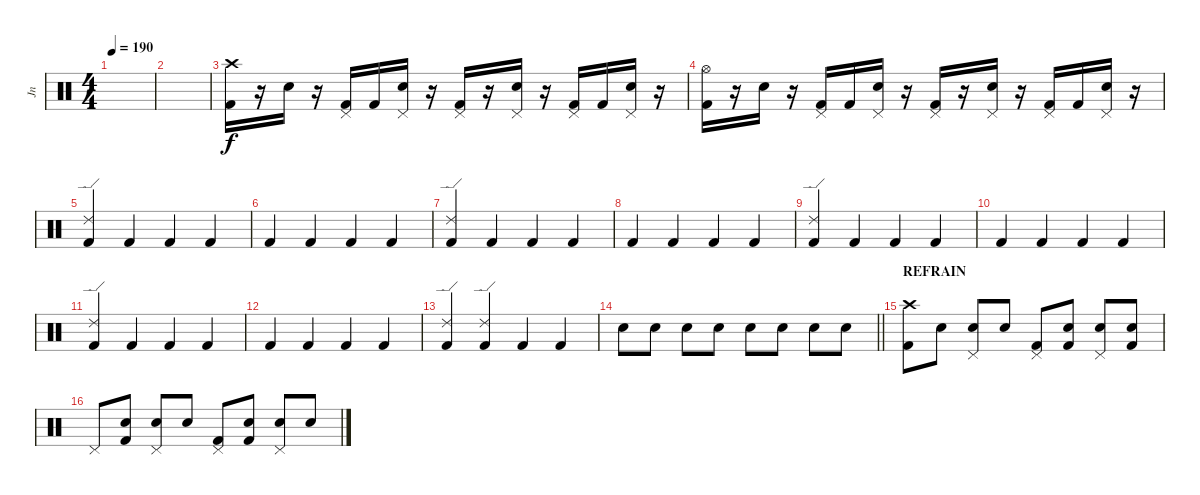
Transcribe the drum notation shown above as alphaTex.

\track ("Jn" "Jn") {instrument percussion}
\staff {score}
\articulation defaults
\ts (4 4)
\tempo 190
\clef neutral
\ks c
|
|
("Crash high (hit)" "Kick (hit) 2").16 r.16 "Electric Snare (hit)".16 r.16 ("Pedal Hi-Hat (hit)" "Kick (hit) 2").16 "Kick (hit) 2".16 ("Pedal Hi-Hat (hit)" "Electric Snare (hit)").16 r.16 ("Pedal Hi-Hat (hit)" "Kick (hit) 2").16 r.16 ("Pedal Hi-Hat (hit)" "Electric Snare (hit)").16 r.16 ("Pedal Hi-Hat (hit)" "Kick (hit) 2").16 "Kick (hit) 2".16 ("Pedal Hi-Hat (hit)" "Electric Snare (hit)").16 r.16 |
("Hi-Hat (open)" "Kick (hit) 2").16 r.16 "Electric Snare (hit)".16 r.16 ("Pedal Hi-Hat (hit)" "Kick (hit) 2").16 "Kick (hit) 2".16 ("Pedal Hi-Hat (hit)" "Electric Snare (hit)").16 r.16 ("Pedal Hi-Hat (hit)" "Kick (hit) 2").16 r.16 ("Pedal Hi-Hat (hit)" "Electric Snare (hit)").16 r.16 ("Pedal Hi-Hat (hit)" "Kick (hit) 2").16 "Kick (hit) 2".16 ("Pedal Hi-Hat (hit)" "Electric Snare (hit)").16 r.16 |
("Ride (edge) 2" "Kick (hit) 2").4 "Kick (hit) 2".4 "Kick (hit) 2".4 "Kick (hit) 2".4 |
"Kick (hit) 2".4 "Kick (hit) 2".4 "Kick (hit) 2".4 "Kick (hit) 2".4 |
("Ride (edge) 2" "Kick (hit) 2").4 "Kick (hit) 2".4 "Kick (hit) 2".4 "Kick (hit) 2".4 |
"Kick (hit) 2".4 "Kick (hit) 2".4 "Kick (hit) 2".4 "Kick (hit) 2".4 |
("Ride (edge) 2" "Kick (hit) 2").4 "Kick (hit) 2".4 "Kick (hit) 2".4 "Kick (hit) 2".4 |
"Kick (hit) 2".4 "Kick (hit) 2".4 "Kick (hit) 2".4 "Kick (hit) 2".4 |
("Ride (edge) 2" "Kick (hit) 2").4 "Kick (hit) 2".4 "Kick (hit) 2".4 "Kick (hit) 2".4 |
"Kick (hit) 2".4 "Kick (hit) 2".4 "Kick (hit) 2".4 "Kick (hit) 2".4 |
("Ride (edge) 2" "Kick (hit) 2").4 ("Ride (edge) 2" "Kick (hit) 2").4 "Kick (hit) 2".4 "Kick (hit) 2".4 |
\barLineRight lightlight "Electric Snare (hit)".8 "Electric Snare (hit)".8 "Electric Snare (hit)".8 "Electric Snare (hit)".8 "Electric Snare (hit)".8 "Electric Snare (hit)".8 "Electric Snare (hit)".8 "Electric Snare (hit)".8
|
\section ("" "REFRAIN")
("Crash high (hit)" "Kick (hit) 2").8 "Snare (hit)".8 ("Pedal Hi-Hat (hit)" "Electric Snare (hit)").8 "Snare (hit)".8 ("Pedal Hi-Hat (hit)" "Kick (hit) 2").8 ("Snare (hit)" "Kick (hit) 2").8 ("Pedal Hi-Hat (hit)" "Electric Snare (hit)").8 ("Snare (hit)" "Kick (hit) 2").8 |
"Pedal Hi-Hat (hit)".8 ("Snare (hit)" "Kick (hit) 2").8 ("Pedal Hi-Hat (hit)" "Electric Snare (hit)").8 "Snare (hit)".8 ("Pedal Hi-Hat (hit)" "Kick (hit) 2").8 ("Snare (hit)" "Kick (hit) 2").8 ("Pedal Hi-Hat (hit)" "Electric Snare (hit)").8 "Snare (hit)".8
